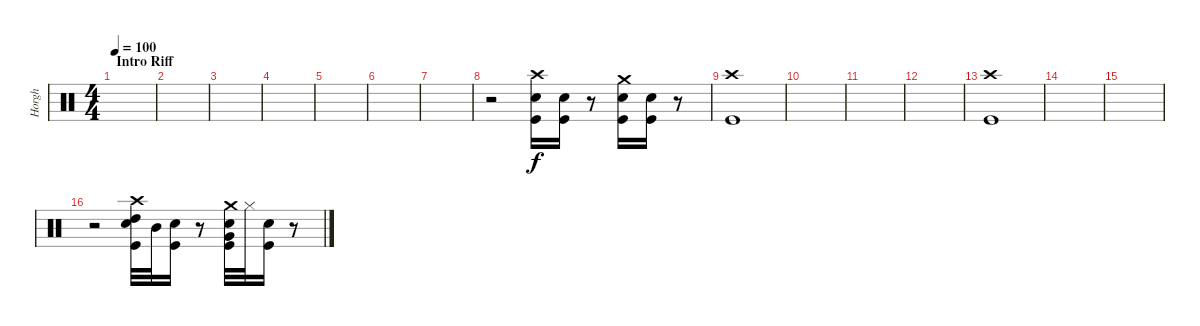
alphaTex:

\track ("Horgh" "Horgh") {instrument percussion}
\staff {score}
\articulation defaults
\ts (4 4)
\section ("" "Intro Riff")
\tempo 100
\clef neutral
\ks c
|
|
|
|
|
|
|
r.2 ("Crash high (hit)" "Electric Snare (hit)" "Kick (hit)").16 ("Electric Snare (hit)" "Kick (hit)").16 r.8 ("Crash medium (hit)" "Electric Snare (hit)" "Kick (hit)").16 ("Electric Snare (hit)" "Kick (hit)").16 r.8 |
("Crash high (hit)" "Kick (hit)").1 |
|
|
|
("Crash high (hit)" "Kick (hit)").1 |
|
|
r.2 ("Crash high (hit)" "Electric Snare (hit)" "High Tom (hit)" "Kick (hit)").32 "Mid Tom (hit)".32 ("Electric Snare (hit)" "Kick (hit)").16 r.8 ("Crash medium (hit)" "Electric Snare (hit)" "Very Low Tom (hit)" "Kick (hit)").32 "Hi-Hat (closed)".32 ("Electric Snare (hit)" "Kick (hit)").16 r.8
